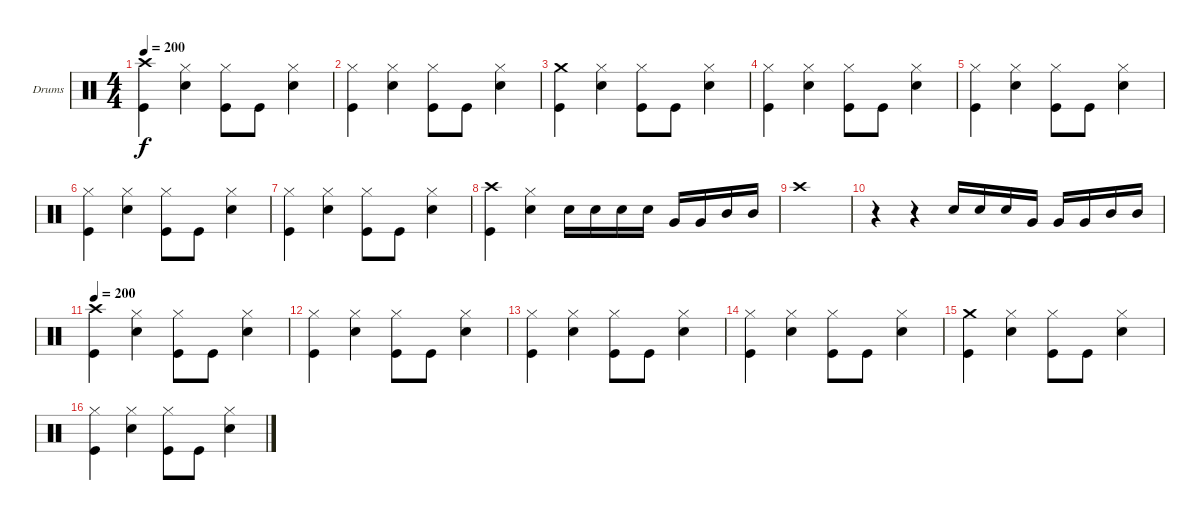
\bracketExtendMode groupsimilarinstruments
\firstSystemTrackNameOrientation horizontal
\otherSystemsTrackNameOrientation horizontal
\track ("Drumkit" "Drums") {instrument percussion}
\staff {score}
\articulation defaults
\ts (4 4)
\tempo 200
\clef neutral
\ks c
("Crash high (hit)" "Kick (hit)").4{dy f} ("Hi-Hat (closed)" "Snare (hit) 2").4 ("Hi-Hat (closed)" "Kick (hit)").8 "Kick (hit)".8 ("Hi-Hat (closed)" "Snare (hit) 2").4 |
("Hi-Hat (closed)" "Kick (hit)").4 ("Hi-Hat (closed)" "Snare (hit) 2").4 ("Hi-Hat (closed)" "Kick (hit)").8 "Kick (hit)".8 ("Hi-Hat (closed)" "Snare (hit) 2").4 |
("Crash medium (hit)" "Kick (hit)").4 ("Hi-Hat (closed)" "Snare (hit) 2").4 ("Hi-Hat (closed)" "Kick (hit)").8 "Kick (hit)".8 ("Hi-Hat (closed)" "Snare (hit) 2").4 |
("Hi-Hat (closed)" "Kick (hit)").4 ("Hi-Hat (closed)" "Snare (hit) 2").4 ("Hi-Hat (closed)" "Kick (hit)").8 "Kick (hit)".8 ("Hi-Hat (closed)" "Snare (hit) 2").4 |
("Hi-Hat (closed)" "Kick (hit)").4 ("Hi-Hat (closed)" "Snare (hit) 2").4 ("Hi-Hat (closed)" "Kick (hit)").8 "Kick (hit)".8 ("Hi-Hat (closed)" "Snare (hit) 2").4 |
("Hi-Hat (closed)" "Kick (hit)").4 ("Hi-Hat (closed)" "Snare (hit) 2").4 ("Hi-Hat (closed)" "Kick (hit)").8 "Kick (hit)".8 ("Hi-Hat (closed)" "Snare (hit) 2").4 |
("Hi-Hat (closed)" "Kick (hit)").4 ("Hi-Hat (closed)" "Snare (hit) 2").4 ("Hi-Hat (closed)" "Kick (hit)").8 "Kick (hit)".8 ("Hi-Hat (closed)" "Snare (hit) 2").4 |
("Crash high (hit)" "Kick (hit)").4 ("Hi-Hat (closed)" "Snare (hit) 2").4 "Snare (hit) 2".16 "Snare (hit) 2".16 "Snare (hit) 2".16 "Snare (hit) 2".16 "Very Low Tom (hit)".16 "Very Low Tom (hit)".16 "Mid Tom (hit)".16 "Mid Tom (hit)".16 |
"Crash high (hit)".1 |
r.4 r.4 "Snare (hit) 2".16 "Snare (hit) 2".16 "Snare (hit) 2".16 "Very Low Tom (hit)".16 "Very Low Tom (hit)".16 "Very Low Tom (hit)".16 "Mid Tom (hit)".16 "Mid Tom (hit)".16 |
\tempo 200
("Crash high (hit)" "Kick (hit)").4 ("Hi-Hat (closed)" "Snare (hit) 2").4 ("Hi-Hat (closed)" "Kick (hit)").8 "Kick (hit)".8 ("Hi-Hat (closed)" "Snare (hit) 2").4 |
("Hi-Hat (closed)" "Kick (hit)").4 ("Hi-Hat (closed)" "Snare (hit) 2").4 ("Hi-Hat (closed)" "Kick (hit)").8 "Kick (hit)".8 ("Hi-Hat (closed)" "Snare (hit) 2").4 |
("Hi-Hat (closed)" "Kick (hit)").4 ("Hi-Hat (closed)" "Snare (hit) 2").4 ("Hi-Hat (closed)" "Kick (hit)").8 "Kick (hit)".8 ("Hi-Hat (closed)" "Snare (hit) 2").4 |
("Hi-Hat (closed)" "Kick (hit)").4 ("Hi-Hat (closed)" "Snare (hit) 2").4 ("Hi-Hat (closed)" "Kick (hit)").8 "Kick (hit)".8 ("Hi-Hat (closed)" "Snare (hit) 2").4 |
("Crash medium (hit)" "Kick (hit)").4 ("Hi-Hat (closed)" "Snare (hit) 2").4 ("Hi-Hat (closed)" "Kick (hit)").8 "Kick (hit)".8 ("Hi-Hat (closed)" "Snare (hit) 2").4 |
("Hi-Hat (closed)" "Kick (hit)").4 ("Hi-Hat (closed)" "Snare (hit) 2").4 ("Hi-Hat (closed)" "Kick (hit)").8 "Kick (hit)".8 ("Hi-Hat (closed)" "Snare (hit) 2").4
